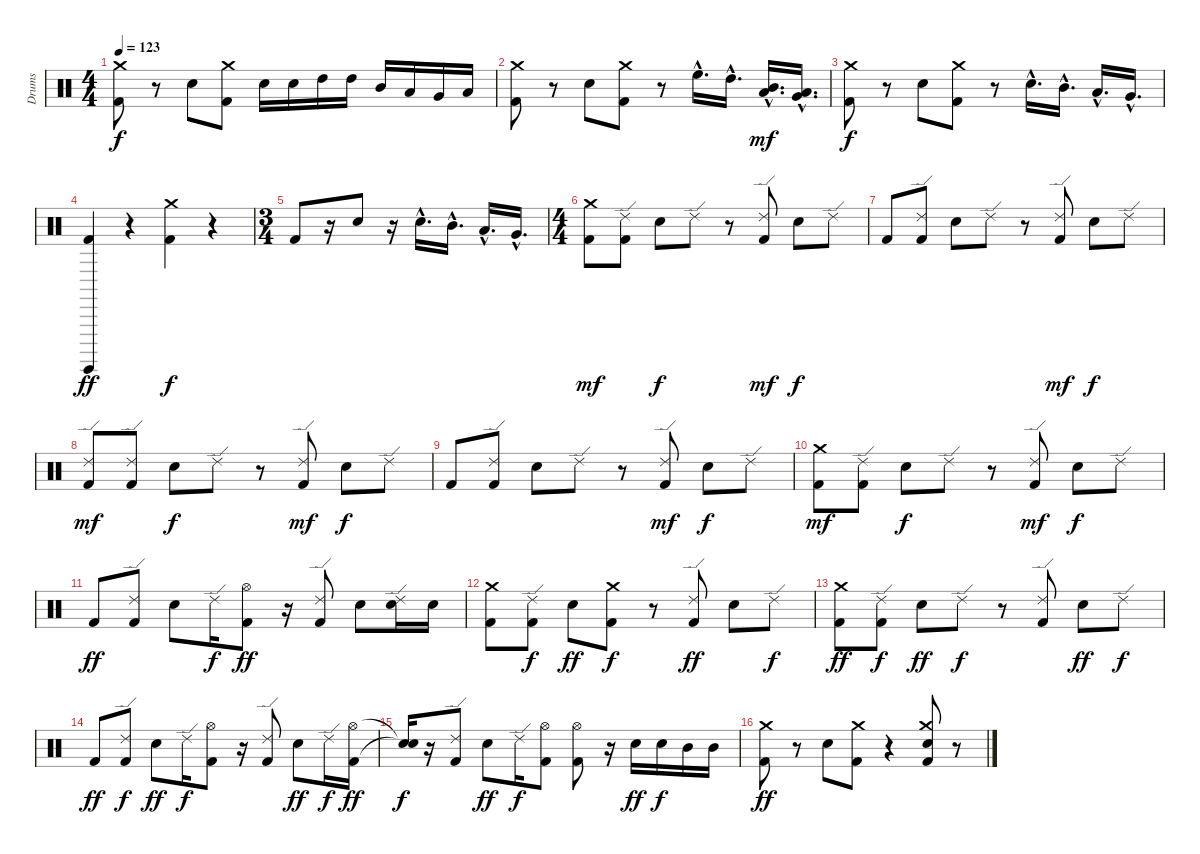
\track ("Drums" "Drums") {instrument percussion}
\staff {score}
\articulation defaults
\ts (4 4)
\tempo 123
\clef neutral
\ks c
("Kick (hit) 2" "Crash medium (hit)").8{dy f} r.8 "Electric Snare (hit)".8 ("Kick (hit) 2" "Crash medium (hit)").8 "Electric Snare (hit)".16 "Electric Snare (hit)".16 "High Tom (hit)".16 "High Tom (hit)".16 "Mid Tom (hit)".16 "Low Tom (hit)".16 "Very Low Tom (hit)".16 "Low Floor Tom (hit)".16 |
("Kick (hit) 2" "Crash medium (hit)").8 r.8 "Electric Snare (hit)".8 ("Kick (hit) 2" "Crash medium (hit)").8 r.8 "High Floor Tom (hit)"{hac}.16{d} "High Tom (hit)"{hac}.16{d} ("Low Tom (hit)"{hac} "Mid Tom (hit)"{hac}).16{d dy mf} ("Very Low Tom (hit)"{hac} "Low Tom (hit)"{hac}).16{d} |
("Kick (hit) 2" "Crash medium (hit)").8{dy f} r.8 "Electric Snare (hit)".8 ("Kick (hit) 2" "Crash medium (hit)").8 r.8 "Electric Snare (hit)"{hac}.16{d} "Mid Tom (hit)"{hac}.16{d} "Low Tom (hit)"{hac}.16{d} "Very Low Tom (hit)"{hac}.16{d} |
("Kick (hit) 2" "Surdo (hit)").4{dy ff} r.4 ("Kick (hit) 2" "Crash medium (hit)").4{dy f} r.4 |
\ts (3 4)
"Kick (hit) 2".8 r.16 "Electric Snare (hit)".8 r.16 "Electric Snare (hit)"{hac}.16{d} "Mid Tom (hit)"{hac}.16{d} "Low Tom (hit)"{hac}.16{d} "Very Low Tom (hit)"{hac}.16{d} |
\ts (4 4)
("Kick (hit) 2" "Crash medium (hit)").8{dy mf} ("Ride (edge) 2" "Kick (hit) 2").8 "Electric Snare (hit)".8{dy f} "Ride (edge) 2".8 r.8 ("Ride (edge) 2" "Kick (hit) 2").8{dy mf} "Electric Snare (hit)".8{dy f} "Ride (edge) 2".8 |
"Kick (hit) 2".8 ("Kick (hit) 2" "Ride (edge) 2").8 "Electric Snare (hit)".8 "Ride (edge) 2".8 r.8 ("Kick (hit) 2" "Ride (edge) 2").8{dy mf} "Electric Snare (hit)".8{dy f} "Ride (edge) 2".8 |
("Ride (edge) 2" "Kick (hit) 2").8{dy mf} ("Kick (hit) 2" "Ride (edge) 2").8 "Electric Snare (hit)".8{dy f} "Ride (edge) 2".8 r.8 ("Kick (hit) 2" "Ride (edge) 2").8{dy mf} "Electric Snare (hit)".8{dy f} "Ride (edge) 2".8 |
"Kick (hit) 2".8 ("Kick (hit) 2" "Ride (edge) 2").8 "Electric Snare (hit)".8 "Ride (edge) 2".8 r.8 ("Kick (hit) 2" "Ride (edge) 2").8{dy mf} "Electric Snare (hit)".8{dy f} "Ride (edge) 2".8 |
("Kick (hit) 2" "Crash medium (hit)").8{dy mf} ("Kick (hit) 2" "Ride (edge) 2").8 "Electric Snare (hit)".8{dy f} "Ride (edge) 2".8 r.8 ("Kick (hit) 2" "Ride (edge) 2").8{dy mf} "Electric Snare (hit)".8{dy f} "Ride (edge) 2".8 |
"Kick (hit) 2".8{dy ff} ("Ride (edge) 2" "Kick (hit) 2").8 "Electric Snare (hit)".8 "Ride (edge) 2".16{dy f} ("Hi-Hat (open)" "Kick (hit) 2").8{dy ff} r.16 ("Ride (edge) 2" "Kick (hit) 2").8 "Electric Snare (hit)".8 ("Ride (edge) 2" "Electric Snare (hit)").16 "Electric Snare (hit)".16 |
("Kick (hit) 2" "Crash medium (hit)").8 ("Kick (hit) 2" "Ride (edge) 2").8{dy f} "Electric Snare (hit)".8{dy ff} ("Kick (hit) 2" "Crash medium (hit)").8{dy f} r.8 ("Ride (edge) 2" "Kick (hit) 2").8{dy ff} "Electric Snare (hit)".8 "Ride (edge) 2".8{dy f} |
("Crash medium (hit)" "Kick (hit) 2").8{dy ff} ("Kick (hit) 2" "Ride (edge) 2").8{dy f} "Electric Snare (hit)".8{dy ff} "Ride (edge) 2".8{dy f} r.8 ("Kick (hit) 2" "Ride (edge) 2").8 "Electric Snare (hit)".8{dy ff} "Ride (edge) 2".8{dy f} |
"Kick (hit) 2".8{dy ff} ("Kick (hit) 2" "Ride (edge) 2").8{dy f} "Electric Snare (hit)".8{dy ff} "Ride (edge) 2".16{dy f} ("Kick (hit) 2" "Hi-Hat (open)").8 r.16 ("Kick (hit) 2" "Ride (edge) 2").8 "Electric Snare (hit)".8{dy ff} "Ride (edge) 2".16{dy f} ("Kick (hit) 2" "Hi-Hat (open)").16{dy ff} |
("Snare (hit)"{t} "Snare (hit)"{t}).16{dy f} r.16 ("Kick (hit) 2" "Ride (edge) 2").8 "Electric Snare (hit)".8{dy ff} "Ride (edge) 2".16{dy f} ("Kick (hit) 2" "Hi-Hat (open)").8 ("Kick (hit) 2" "Hi-Hat (open)").8 r.16 "Electric Snare (hit)".16{dy ff} "Electric Snare (hit)".16{dy f} "Mid Tom (hit)".16 "Mid Tom (hit)".16 |
("Kick (hit) 2" "Crash medium (hit)").8{dy ff} r.8 "Electric Snare (hit)".8 ("Crash medium (hit)" "Kick (hit) 2").8 r.4 ("Kick (hit) 2" "Crash medium (hit)" "Electric Snare (hit)").8 r.8
